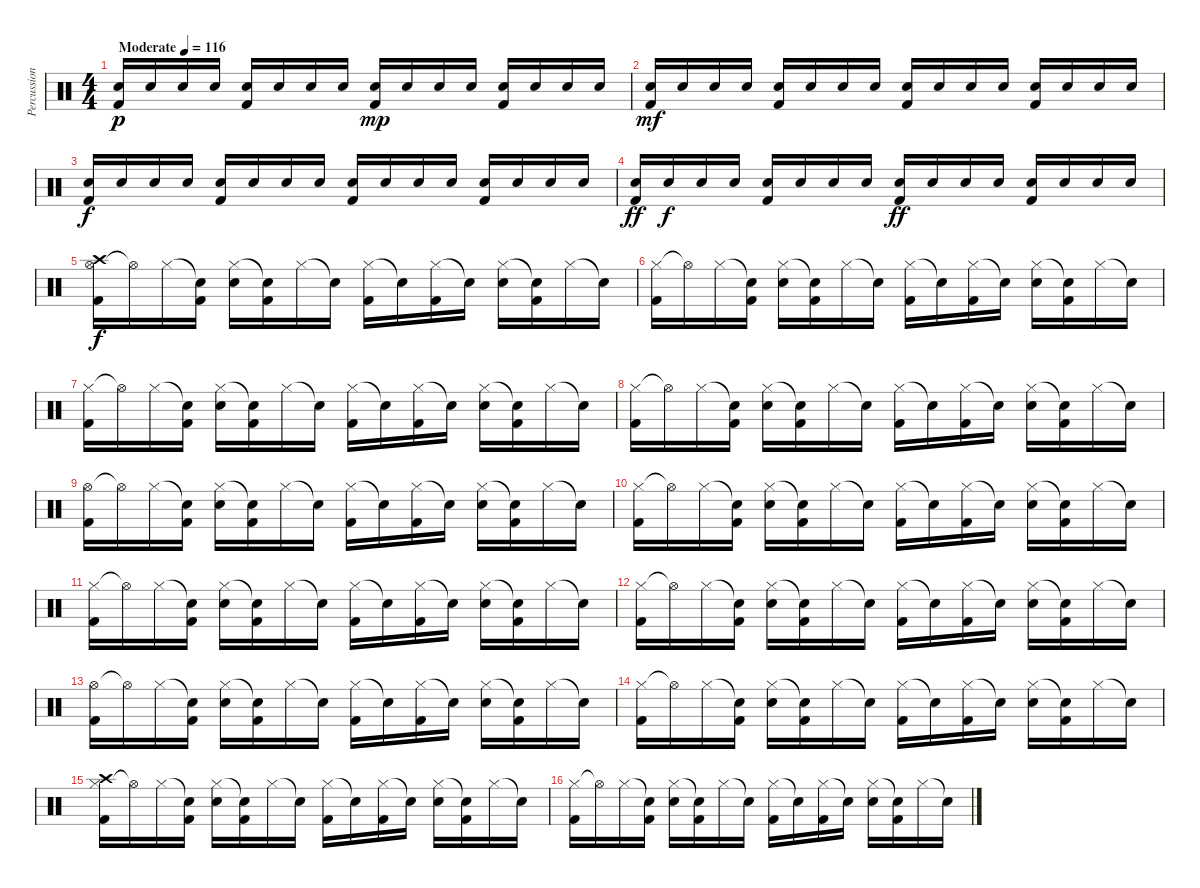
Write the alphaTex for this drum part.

\track ("Percussion" "Percussion") {instrument percussion}
\staff {score}
\articulation defaults
\ts (4 4)
\tempo (116 "Moderate")
\clef neutral
\ks c
("Kick (hit) 2" "Electric Snare (hit)").16{dy p} "Electric Snare (hit)".16 "Electric Snare (hit)".16 "Electric Snare (hit)".16 ("Kick (hit) 2" "Electric Snare (hit)").16 "Electric Snare (hit)".16 "Electric Snare (hit)".16 "Electric Snare (hit)".16 ("Kick (hit) 2" "Electric Snare (hit)").16{dy mp} "Electric Snare (hit)".16 "Electric Snare (hit)".16 "Electric Snare (hit)".16 ("Kick (hit) 2" "Electric Snare (hit)").16 "Electric Snare (hit)".16 "Electric Snare (hit)".16 "Electric Snare (hit)".16 |
("Kick (hit) 2" "Electric Snare (hit)").16{dy mf} "Electric Snare (hit)".16 "Electric Snare (hit)".16 "Electric Snare (hit)".16 ("Kick (hit) 2" "Electric Snare (hit)").16 "Electric Snare (hit)".16 "Electric Snare (hit)".16 "Electric Snare (hit)".16 ("Kick (hit) 2" "Electric Snare (hit)").16 "Electric Snare (hit)".16 "Electric Snare (hit)".16 "Electric Snare (hit)".16 ("Kick (hit) 2" "Electric Snare (hit)").16 "Electric Snare (hit)".16 "Electric Snare (hit)".16 "Electric Snare (hit)".16 |
("Kick (hit) 2" "Electric Snare (hit)").16{dy f} "Electric Snare (hit)".16 "Electric Snare (hit)".16 "Electric Snare (hit)".16 ("Kick (hit) 2" "Electric Snare (hit)").16 "Electric Snare (hit)".16 "Electric Snare (hit)".16 "Electric Snare (hit)".16 ("Kick (hit) 2" "Electric Snare (hit)").16 "Electric Snare (hit)".16 "Electric Snare (hit)".16 "Electric Snare (hit)".16 ("Kick (hit) 2" "Electric Snare (hit)").16 "Electric Snare (hit)".16 "Electric Snare (hit)".16 "Electric Snare (hit)".16 |
("Kick (hit) 2" "Electric Snare (hit)").16{dy ff} "Electric Snare (hit)".16{dy f} "Electric Snare (hit)".16 "Electric Snare (hit)".16 ("Kick (hit) 2" "Electric Snare (hit)").16 "Electric Snare (hit)".16 "Electric Snare (hit)".16 "Electric Snare (hit)".16 ("Kick (hit) 2" "Electric Snare (hit)").16{dy ff} "Electric Snare (hit)".16 "Electric Snare (hit)".16 "Electric Snare (hit)".16 ("Kick (hit) 2" "Electric Snare (hit)").16 "Electric Snare (hit)".16 "Electric Snare (hit)".16 "Electric Snare (hit)".16 |
("Hi-Hat (open)" "Kick (hit) 2" "Crash high (hit)").16{dy f} "Hi-Hat (open)"{t}.16 "Hi-Hat (closed)".16 ("Snare (hit)"{t} "Kick (hit) 2").16 ("Hi-Hat (closed)" "Electric Snare (hit)").16 ("Snare (hit)"{t} "Kick (hit) 2").16 "Hi-Hat (closed)".16 "Snare (hit)"{t}.16 ("Hi-Hat (closed)" "Kick (hit) 2").16 "Snare (hit)"{t}.16 ("Hi-Hat (closed)" "Kick (hit) 2").16 "Snare (hit)"{t}.16 ("Hi-Hat (closed)" "Electric Snare (hit)").16 ("Snare (hit)"{t} "Kick (hit) 2").16 "Hi-Hat (closed)".16 "Snare (hit)"{t}.16 |
("Hi-Hat (closed)" "Kick (hit) 2").16 "Hi-Hat (open)"{t}.16 "Hi-Hat (closed)".16 ("Snare (hit)"{t} "Kick (hit) 2").16 ("Hi-Hat (closed)" "Electric Snare (hit)").16 ("Snare (hit)"{t} "Kick (hit) 2").16 "Hi-Hat (closed)".16 "Snare (hit)"{t}.16 ("Hi-Hat (closed)" "Kick (hit) 2").16 "Snare (hit)"{t}.16 ("Hi-Hat (closed)" "Kick (hit) 2").16 "Snare (hit)"{t}.16 ("Hi-Hat (closed)" "Electric Snare (hit)").16 ("Snare (hit)"{t} "Kick (hit) 2").16 "Hi-Hat (closed)".16 "Snare (hit)"{t}.16 |
("Hi-Hat (closed)" "Kick (hit) 2").16 "Hi-Hat (open)"{t}.16 "Hi-Hat (closed)".16 ("Snare (hit)"{t} "Kick (hit) 2").16 ("Hi-Hat (closed)" "Electric Snare (hit)").16 ("Snare (hit)"{t} "Kick (hit) 2").16 "Hi-Hat (closed)".16 "Snare (hit)"{t}.16 ("Hi-Hat (closed)" "Kick (hit) 2").16 "Snare (hit)"{t}.16 ("Hi-Hat (closed)" "Kick (hit) 2").16 "Snare (hit)"{t}.16 ("Hi-Hat (closed)" "Electric Snare (hit)").16 ("Snare (hit)"{t} "Kick (hit) 2").16 "Hi-Hat (closed)".16 "Snare (hit)"{t}.16 |
("Hi-Hat (closed)" "Kick (hit) 2").16 "Hi-Hat (open)"{t}.16 "Hi-Hat (closed)".16 ("Snare (hit)"{t} "Kick (hit) 2").16 ("Hi-Hat (closed)" "Electric Snare (hit)").16 ("Snare (hit)"{t} "Kick (hit) 2").16 "Hi-Hat (closed)".16 "Snare (hit)"{t}.16 ("Hi-Hat (closed)" "Kick (hit) 2").16 "Snare (hit)"{t}.16 ("Hi-Hat (closed)" "Kick (hit) 2").16 "Snare (hit)"{t}.16 ("Hi-Hat (closed)" "Electric Snare (hit)").16 ("Snare (hit)"{t} "Kick (hit) 2").16 "Hi-Hat (closed)".16 "Snare (hit)"{t}.16 |
("Hi-Hat (open)" "Kick (hit) 2").16 "Hi-Hat (open)"{t}.16 "Hi-Hat (closed)".16 ("Snare (hit)"{t} "Kick (hit) 2").16 ("Hi-Hat (closed)" "Electric Snare (hit)").16 ("Snare (hit)"{t} "Kick (hit) 2").16 "Hi-Hat (closed)".16 "Snare (hit)"{t}.16 ("Hi-Hat (closed)" "Kick (hit) 2").16 "Snare (hit)"{t}.16 ("Hi-Hat (closed)" "Kick (hit) 2").16 "Snare (hit)"{t}.16 ("Hi-Hat (closed)" "Electric Snare (hit)").16 ("Snare (hit)"{t} "Kick (hit) 2").16 "Hi-Hat (closed)".16 "Snare (hit)"{t}.16 |
("Hi-Hat (closed)" "Kick (hit) 2").16 "Hi-Hat (open)"{t}.16 "Hi-Hat (closed)".16 ("Snare (hit)"{t} "Kick (hit) 2").16 ("Hi-Hat (closed)" "Electric Snare (hit)").16 ("Snare (hit)"{t} "Kick (hit) 2").16 "Hi-Hat (closed)".16 "Snare (hit)"{t}.16 ("Hi-Hat (closed)" "Kick (hit) 2").16 "Snare (hit)"{t}.16 ("Hi-Hat (closed)" "Kick (hit) 2").16 "Snare (hit)"{t}.16 ("Hi-Hat (closed)" "Electric Snare (hit)").16 ("Snare (hit)"{t} "Kick (hit) 2").16 "Hi-Hat (closed)".16 "Snare (hit)"{t}.16 |
("Hi-Hat (closed)" "Kick (hit) 2").16 "Hi-Hat (open)"{t}.16 "Hi-Hat (closed)".16 ("Snare (hit)"{t} "Kick (hit) 2").16 ("Hi-Hat (closed)" "Electric Snare (hit)").16 ("Snare (hit)"{t} "Kick (hit) 2").16 "Hi-Hat (closed)".16 "Snare (hit)"{t}.16 ("Hi-Hat (closed)" "Kick (hit) 2").16 "Snare (hit)"{t}.16 ("Hi-Hat (closed)" "Kick (hit) 2").16 "Snare (hit)"{t}.16 ("Hi-Hat (closed)" "Electric Snare (hit)").16 ("Snare (hit)"{t} "Kick (hit) 2").16 "Hi-Hat (closed)".16 "Snare (hit)"{t}.16 |
("Hi-Hat (closed)" "Kick (hit) 2").16 "Hi-Hat (open)"{t}.16 "Hi-Hat (closed)".16 ("Snare (hit)"{t} "Kick (hit) 2").16 ("Hi-Hat (closed)" "Electric Snare (hit)").16 ("Snare (hit)"{t} "Kick (hit) 2").16 "Hi-Hat (closed)".16 "Snare (hit)"{t}.16 ("Hi-Hat (closed)" "Kick (hit) 2").16 "Snare (hit)"{t}.16 ("Hi-Hat (closed)" "Kick (hit) 2").16 "Snare (hit)"{t}.16 ("Hi-Hat (closed)" "Electric Snare (hit)").16 ("Snare (hit)"{t} "Kick (hit) 2").16 "Hi-Hat (closed)".16 "Snare (hit)"{t}.16 |
("Hi-Hat (open)" "Kick (hit) 2").16 "Hi-Hat (open)"{t}.16 "Hi-Hat (closed)".16 ("Snare (hit)"{t} "Kick (hit) 2").16 ("Hi-Hat (closed)" "Electric Snare (hit)").16 ("Snare (hit)"{t} "Kick (hit) 2").16 "Hi-Hat (closed)".16 "Snare (hit)"{t}.16 ("Hi-Hat (closed)" "Kick (hit) 2").16 "Snare (hit)"{t}.16 ("Hi-Hat (closed)" "Kick (hit) 2").16 "Snare (hit)"{t}.16 ("Hi-Hat (closed)" "Electric Snare (hit)").16 ("Snare (hit)"{t} "Kick (hit) 2").16 "Hi-Hat (closed)".16 "Snare (hit)"{t}.16 |
("Hi-Hat (closed)" "Kick (hit) 2").16 "Hi-Hat (open)"{t}.16 "Hi-Hat (closed)".16 ("Snare (hit)"{t} "Kick (hit) 2").16 ("Hi-Hat (closed)" "Electric Snare (hit)").16 ("Snare (hit)"{t} "Kick (hit) 2").16 "Hi-Hat (closed)".16 "Snare (hit)"{t}.16 ("Hi-Hat (closed)" "Kick (hit) 2").16 "Snare (hit)"{t}.16 ("Hi-Hat (closed)" "Kick (hit) 2").16 "Snare (hit)"{t}.16 ("Hi-Hat (closed)" "Electric Snare (hit)").16 ("Snare (hit)"{t} "Kick (hit) 2").16 "Hi-Hat (closed)".16 "Snare (hit)"{t}.16 |
("Hi-Hat (closed)" "Kick (hit) 2" "Crash high (hit)").16 "Hi-Hat (open)"{t}.16 "Hi-Hat (closed)".16 ("Snare (hit)"{t} "Kick (hit) 2").16 ("Hi-Hat (closed)" "Electric Snare (hit)").16 ("Snare (hit)"{t} "Kick (hit) 2").16 "Hi-Hat (closed)".16 "Snare (hit)"{t}.16 ("Hi-Hat (closed)" "Kick (hit) 2").16 "Snare (hit)"{t}.16 ("Hi-Hat (closed)" "Kick (hit) 2").16 "Snare (hit)"{t}.16 ("Hi-Hat (closed)" "Electric Snare (hit)").16 ("Snare (hit)"{t} "Kick (hit) 2").16 "Hi-Hat (closed)".16 "Snare (hit)"{t}.16 |
("Hi-Hat (closed)" "Kick (hit) 2").16 "Hi-Hat (open)"{t}.16 "Hi-Hat (closed)".16 ("Snare (hit)"{t} "Kick (hit) 2").16 ("Hi-Hat (closed)" "Electric Snare (hit)").16 ("Snare (hit)"{t} "Kick (hit) 2").16 "Hi-Hat (closed)".16 "Snare (hit)"{t}.16 ("Hi-Hat (closed)" "Kick (hit) 2").16 "Snare (hit)"{t}.16 ("Hi-Hat (closed)" "Kick (hit) 2").16 "Snare (hit)"{t}.16 ("Hi-Hat (closed)" "Electric Snare (hit)").16 ("Snare (hit)"{t} "Kick (hit) 2").16 "Hi-Hat (closed)".16 "Snare (hit)"{t}.16
